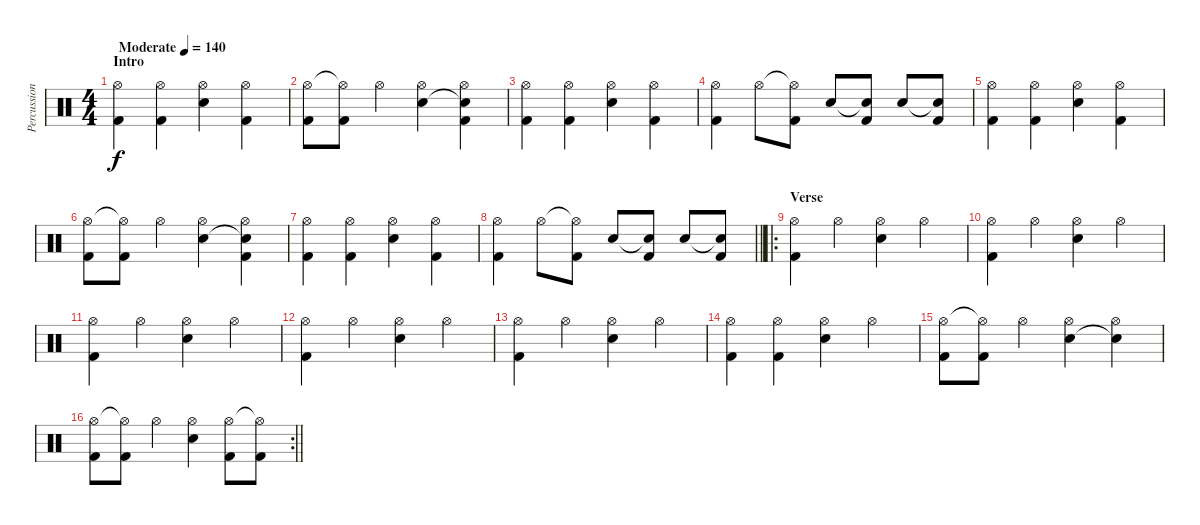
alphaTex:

\track ("Percussion" "Percussion") {instrument percussion}
\staff {score}
\articulation defaults
\ts (4 4)
\section ("" "Intro")
\tempo (140 "Moderate")
\clef neutral
\ks c
("Hi-Hat (open)" "Kick (hit) 2").4{dy f} ("Hi-Hat (open)" "Kick (hit) 2").4 ("Hi-Hat (open)" "Snare (hit) 2").4 ("Hi-Hat (open)" "Kick (hit) 2").4 |
("Hi-Hat (open)" "Kick (hit) 2").8 ("Hi-Hat (open)"{t} "Kick (hit) 2").8 "Hi-Hat (open)".4 ("Hi-Hat (open)" "Snare (hit) 2").4 ("Hi-Hat (open)" "Snare (hit) 2"{t} "Kick (hit) 2").4 |
("Hi-Hat (open)" "Kick (hit) 2").4 ("Hi-Hat (open)" "Kick (hit) 2").4 ("Hi-Hat (open)" "Snare (hit) 2").4 ("Hi-Hat (open)" "Kick (hit) 2").4 |
("Hi-Hat (open)" "Kick (hit) 2").4 "Hi-Hat (open)".8 ("Hi-Hat (open)"{t} "Kick (hit) 2").8 "Snare (hit) 2".8 ("Snare (hit) 2"{t} "Kick (hit) 2").8 "Snare (hit) 2".8 ("Snare (hit) 2"{t} "Kick (hit) 2").8 |
("Hi-Hat (open)" "Kick (hit) 2").4 ("Hi-Hat (open)" "Kick (hit) 2").4 ("Hi-Hat (open)" "Snare (hit) 2").4 ("Hi-Hat (open)" "Kick (hit) 2").4 |
("Hi-Hat (open)" "Kick (hit) 2").8 ("Hi-Hat (open)"{t} "Kick (hit) 2").8 "Hi-Hat (open)".4 ("Hi-Hat (open)" "Snare (hit) 2").4 ("Hi-Hat (open)" "Snare (hit) 2"{t} "Kick (hit) 2").4 |
("Hi-Hat (open)" "Kick (hit) 2").4 ("Hi-Hat (open)" "Kick (hit) 2").4 ("Hi-Hat (open)" "Snare (hit) 2").4 ("Hi-Hat (open)" "Kick (hit) 2").4 |
\barLineRight lightlight
("Hi-Hat (open)" "Kick (hit) 2").4 "Hi-Hat (open)".8 ("Hi-Hat (open)"{t} "Kick (hit) 2").8 "Snare (hit) 2".8 ("Snare (hit) 2"{t} "Kick (hit) 2").8 "Snare (hit) 2".8 ("Snare (hit) 2"{t} "Kick (hit) 2").8 |
\ro
\section ("" "Verse")
("Hi-Hat (open)" "Kick (hit) 2").4 "Hi-Hat (open)".4 ("Hi-Hat (open)" "Snare (hit) 2").4 "Hi-Hat (open)".4 |
("Hi-Hat (open)" "Kick (hit) 2").4 "Hi-Hat (open)".4 ("Hi-Hat (open)" "Snare (hit) 2").4 "Hi-Hat (open)".4 |
("Hi-Hat (open)" "Kick (hit) 2").4 "Hi-Hat (open)".4 ("Hi-Hat (open)" "Snare (hit) 2").4 "Hi-Hat (open)".4 |
("Hi-Hat (open)" "Kick (hit) 2").4 "Hi-Hat (open)".4 ("Hi-Hat (open)" "Snare (hit) 2").4 "Hi-Hat (open)".4 |
("Hi-Hat (open)" "Kick (hit) 2").4 "Hi-Hat (open)".4 ("Hi-Hat (open)" "Snare (hit) 2").4 "Hi-Hat (open)".4 |
("Hi-Hat (open)" "Kick (hit) 2").4 ("Hi-Hat (open)" "Kick (hit) 2").4 ("Hi-Hat (open)" "Snare (hit) 2").4 "Hi-Hat (open)".4 |
("Hi-Hat (open)" "Kick (hit) 2").8 ("Hi-Hat (open)"{t} "Kick (hit) 2").8 "Hi-Hat (open)".4 ("Hi-Hat (open)" "Snare (hit) 2").4 ("Hi-Hat (open)" "Snare (hit) 2"{t}).4 |
\rc 2
\barLineRight lightlight
("Hi-Hat (open)" "Kick (hit) 2").8 ("Hi-Hat (open)"{t} "Kick (hit) 2").8 "Hi-Hat (open)".4 ("Hi-Hat (open)" "Snare (hit) 2").4 ("Hi-Hat (open)" "Kick (hit) 2").8 ("Hi-Hat (open)"{t} "Kick (hit) 2").8
